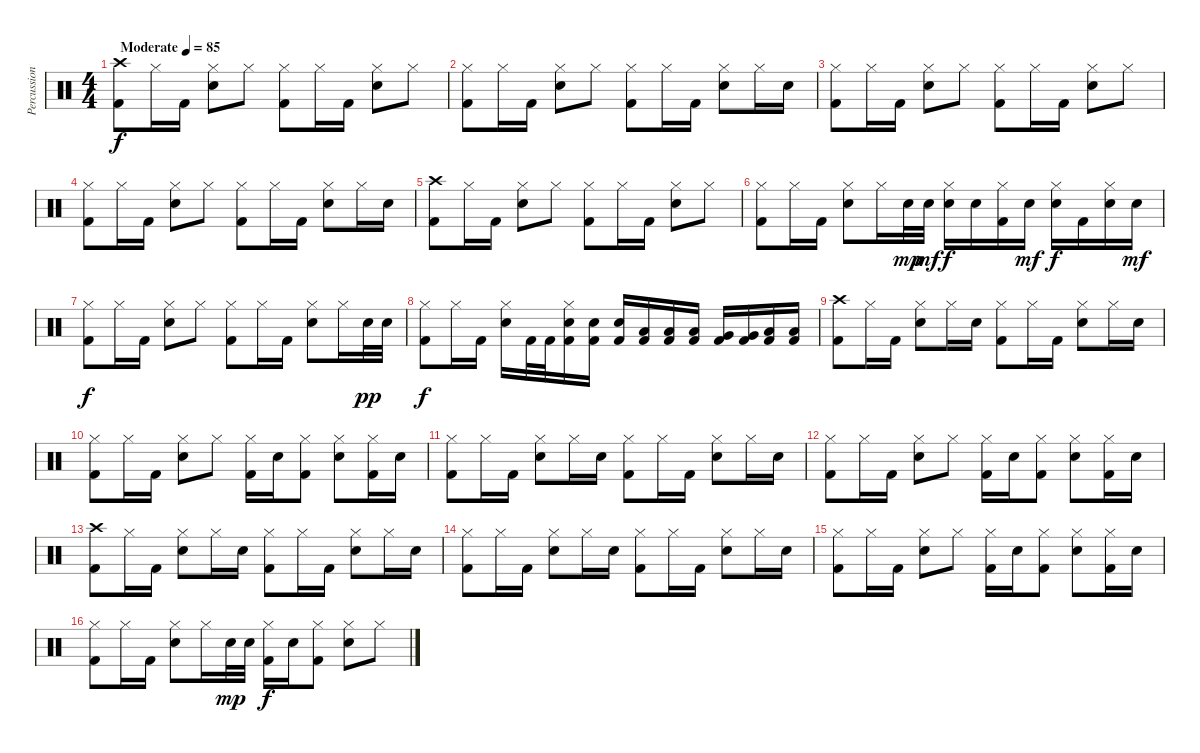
\track ("Percussion" "Percussion") {instrument percussion}
\staff {score}
\articulation defaults
\ts (4 4)
\tempo (85 "Moderate")
\clef neutral
\ks c
("Crash high (hit)" "Kick (hit) 2").8{dy f} "Hi-Hat (closed)".16 "Kick (hit) 2".16 ("Hi-Hat (closed)" "Electric Snare (hit)").8 "Hi-Hat (closed)".8 ("Hi-Hat (closed)" "Kick (hit) 2").8 "Hi-Hat (closed)".16 "Kick (hit) 2".16 ("Hi-Hat (closed)" "Electric Snare (hit)").8 "Hi-Hat (closed)".8 |
("Hi-Hat (closed)" "Kick (hit) 2").8 "Hi-Hat (closed)".16 "Kick (hit) 2".16 ("Hi-Hat (closed)" "Electric Snare (hit)").8 "Hi-Hat (closed)".8 ("Hi-Hat (closed)" "Kick (hit) 2").8 "Hi-Hat (closed)".16 "Kick (hit) 2".16 ("Hi-Hat (closed)" "Electric Snare (hit)").8 "Hi-Hat (closed)".16 "Electric Snare (hit)".16 |
("Hi-Hat (closed)" "Kick (hit) 2").8 "Hi-Hat (closed)".16 "Kick (hit) 2".16 ("Hi-Hat (closed)" "Electric Snare (hit)").8 "Hi-Hat (closed)".8 ("Hi-Hat (closed)" "Kick (hit) 2").8 "Hi-Hat (closed)".16 "Kick (hit) 2".16 ("Hi-Hat (closed)" "Electric Snare (hit)").8 "Hi-Hat (closed)".8 |
("Hi-Hat (closed)" "Kick (hit) 2").8 "Hi-Hat (closed)".16 "Kick (hit) 2".16 ("Hi-Hat (closed)" "Electric Snare (hit)").8 "Hi-Hat (closed)".8 ("Hi-Hat (closed)" "Kick (hit) 2").8 "Hi-Hat (closed)".16 "Kick (hit) 2".16 ("Hi-Hat (closed)" "Electric Snare (hit)").8 "Hi-Hat (closed)".16 "Electric Snare (hit)".16 |
("Crash high (hit)" "Kick (hit) 2").8 "Hi-Hat (closed)".16 "Kick (hit) 2".16 ("Hi-Hat (closed)" "Electric Snare (hit)").8 "Hi-Hat (closed)".8 ("Hi-Hat (closed)" "Kick (hit) 2").8 "Hi-Hat (closed)".16 "Kick (hit) 2".16 ("Hi-Hat (closed)" "Electric Snare (hit)").8 "Hi-Hat (closed)".8 |
("Hi-Hat (closed)" "Kick (hit) 2").8 "Hi-Hat (closed)".16 "Kick (hit) 2".16 ("Hi-Hat (closed)" "Electric Snare (hit)").8 "Hi-Hat (closed)".16 "Electric Snare (hit)".32{dy mp} "Electric Snare (hit)".32{dy mf} ("Hi-Hat (closed)" "Electric Snare (hit)").16{dy f} "Electric Snare (hit)".16 ("Hi-Hat (closed)" "Kick (hit) 2").16 "Electric Snare (hit)".16{dy mf} ("Hi-Hat (closed)" "Electric Snare (hit)").16{dy f} "Kick (hit) 2".16 ("Hi-Hat (closed)" "Electric Snare (hit)").16 "Electric Snare (hit)".16{dy mf} |
("Hi-Hat (closed)" "Kick (hit) 2").8{dy f} "Hi-Hat (closed)".16 "Kick (hit) 2".16 ("Hi-Hat (closed)" "Electric Snare (hit)").8 "Hi-Hat (closed)".8 ("Hi-Hat (closed)" "Kick (hit) 2").8 "Hi-Hat (closed)".16 "Kick (hit) 2".16 ("Hi-Hat (closed)" "Electric Snare (hit)").8 "Hi-Hat (closed)".16 "Electric Snare (hit)".32{dy pp} "Electric Snare (hit)".32 |
("Hi-Hat (closed)" "Kick (hit) 2").8{dy f} "Hi-Hat (closed)".16 "Kick (hit) 2".16 ("Hi-Hat (closed)" "Electric Snare (hit)").16 "Kick (hit) 2".32 "Kick (hit) 2".32 ("Hi-Hat (closed)" "Electric Snare (hit)" "Kick (hit) 2").16 ("Electric Snare (hit)" "Kick (hit) 2").16 ("Electric Snare (hit)" "Kick (hit) 2").16 ("Low Tom (hit)" "Kick (hit) 2").16 ("Low Tom (hit)" "Kick (hit) 2").16 ("Low Tom (hit)" "Kick (hit) 2").16 ("Very Low Tom (hit)" "Kick (hit) 2").16 ("Very Low Tom (hit)" "Kick (hit) 2").16 ("Low Floor Tom (hit)" "Kick (hit) 2").16 ("Low Floor Tom (hit)" "Kick (hit) 2").16 |
("Crash high (hit)" "Kick (hit) 2").8 "Hi-Hat (closed)".16 "Kick (hit) 2".16 ("Hi-Hat (closed)" "Electric Snare (hit)").8 "Hi-Hat (closed)".16 "Electric Snare (hit)".16 ("Hi-Hat (closed)" "Kick (hit) 2").8 "Hi-Hat (closed)".16 "Kick (hit) 2".16 ("Hi-Hat (closed)" "Electric Snare (hit)").8 "Hi-Hat (closed)".16 "Electric Snare (hit)".16 |
("Hi-Hat (closed)" "Kick (hit) 2").8 "Hi-Hat (closed)".16 "Kick (hit) 2".16 ("Hi-Hat (closed)" "Electric Snare (hit)").8 "Hi-Hat (closed)".8 ("Hi-Hat (closed)" "Kick (hit) 2").16 "Electric Snare (hit)".16 ("Hi-Hat (closed)" "Kick (hit) 2").8 ("Hi-Hat (closed)" "Electric Snare (hit)").8 ("Hi-Hat (closed)" "Kick (hit) 2").16 "Electric Snare (hit)".16 |
("Hi-Hat (closed)" "Kick (hit) 2").8 "Hi-Hat (closed)".16 "Kick (hit) 2".16 ("Hi-Hat (closed)" "Electric Snare (hit)").8 "Hi-Hat (closed)".16 "Electric Snare (hit)".16 ("Hi-Hat (closed)" "Kick (hit) 2").8 "Hi-Hat (closed)".16 "Kick (hit) 2".16 ("Hi-Hat (closed)" "Electric Snare (hit)").8 "Hi-Hat (closed)".16 "Electric Snare (hit)".16 |
("Hi-Hat (closed)" "Kick (hit) 2").8 "Hi-Hat (closed)".16 "Kick (hit) 2".16 ("Hi-Hat (closed)" "Electric Snare (hit)").8 "Hi-Hat (closed)".8 ("Hi-Hat (closed)" "Kick (hit) 2").16 "Electric Snare (hit)".16 ("Hi-Hat (closed)" "Kick (hit) 2").8 ("Hi-Hat (closed)" "Electric Snare (hit)").8 ("Hi-Hat (closed)" "Kick (hit) 2").16 "Electric Snare (hit)".16 |
("Crash high (hit)" "Kick (hit) 2").8 "Hi-Hat (closed)".16 "Kick (hit) 2".16 ("Hi-Hat (closed)" "Electric Snare (hit)").8 "Hi-Hat (closed)".16 "Electric Snare (hit)".16 ("Hi-Hat (closed)" "Kick (hit) 2").8 "Hi-Hat (closed)".16 "Kick (hit) 2".16 ("Hi-Hat (closed)" "Electric Snare (hit)").8 "Hi-Hat (closed)".16 "Electric Snare (hit)".16 |
("Hi-Hat (closed)" "Kick (hit) 2").8 "Hi-Hat (closed)".16 "Kick (hit) 2".16 ("Hi-Hat (closed)" "Electric Snare (hit)").8 "Hi-Hat (closed)".16 "Electric Snare (hit)".16 ("Hi-Hat (closed)" "Kick (hit) 2").8 "Hi-Hat (closed)".16 "Kick (hit) 2".16 ("Hi-Hat (closed)" "Electric Snare (hit)").8 "Hi-Hat (closed)".16 "Electric Snare (hit)".16 |
("Hi-Hat (closed)" "Kick (hit) 2").8 "Hi-Hat (closed)".16 "Kick (hit) 2".16 ("Hi-Hat (closed)" "Electric Snare (hit)").8 "Hi-Hat (closed)".8 ("Hi-Hat (closed)" "Kick (hit) 2").16 "Electric Snare (hit)".16 ("Hi-Hat (closed)" "Kick (hit) 2").8 ("Hi-Hat (closed)" "Electric Snare (hit)").8 ("Hi-Hat (closed)" "Kick (hit) 2").16 "Electric Snare (hit)".16 |
("Hi-Hat (closed)" "Kick (hit) 2").8 "Hi-Hat (closed)".16 "Kick (hit) 2".16 ("Hi-Hat (closed)" "Electric Snare (hit)").8 "Hi-Hat (closed)".16 "Electric Snare (hit)".32{dy mp} "Electric Snare (hit)".32 ("Hi-Hat (closed)" "Kick (hit) 2").16{dy f} "Electric Snare (hit)".16 ("Hi-Hat (closed)" "Kick (hit) 2").8 ("Hi-Hat (closed)" "Electric Snare (hit)").8 "Hi-Hat (closed)".8
